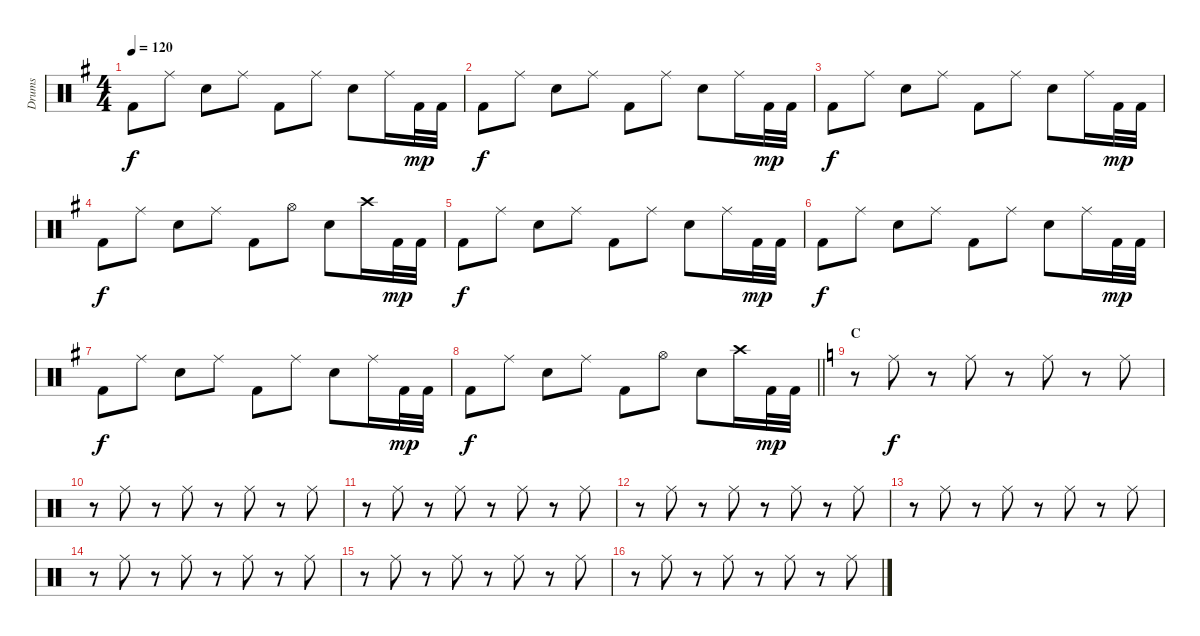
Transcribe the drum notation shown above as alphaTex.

\track ("Drums" "Drums") {instrument percussion}
\staff
\articulation defaults
\ts (4 4)
\tempo 120
\clef neutral
\ks g "Kick (hit) 2".8{dy f} "Ride (middle)".8 "Electric Snare (hit)".8 "Ride (middle)".8 "Kick (hit) 2".8 "Ride (middle)".8 "Electric Snare (hit)".8 "Ride (middle)".16 "Kick (hit) 2".32{dy mp} "Kick (hit) 2".32
|
"Kick (hit) 2".8{dy f} "Ride (middle)".8 "Electric Snare (hit)".8 "Ride (middle)".8 "Kick (hit) 2".8 "Ride (middle)".8 "Electric Snare (hit)".8 "Ride (middle)".16 "Kick (hit) 2".32{dy mp} "Kick (hit) 2".32 |
"Kick (hit) 2".8{dy f} "Ride (middle)".8 "Electric Snare (hit)".8 "Ride (middle)".8 "Kick (hit) 2".8 "Ride (middle)".8 "Electric Snare (hit)".8 "Ride (middle)".16 "Kick (hit) 2".32{dy mp} "Kick (hit) 2".32 |
"Kick (hit) 2".8{dy f} "Ride (middle)".8 "Electric Snare (hit)".8 "Ride (middle)".8 "Kick (hit) 2".8 "Hi-Hat (open)".8 "Electric Snare (hit)".8 "Crash high (hit)".16 "Kick (hit) 2".32{dy mp} "Kick (hit) 2".32 |
"Kick (hit) 2".8{dy f} "Ride (middle)".8 "Electric Snare (hit)".8 "Ride (middle)".8 "Kick (hit) 2".8 "Ride (middle)".8 "Electric Snare (hit)".8 "Ride (middle)".16 "Kick (hit) 2".32{dy mp} "Kick (hit) 2".32 |
"Kick (hit) 2".8{dy f} "Ride (middle)".8 "Electric Snare (hit)".8 "Ride (middle)".8 "Kick (hit) 2".8 "Ride (middle)".8 "Electric Snare (hit)".8 "Ride (middle)".16 "Kick (hit) 2".32{dy mp} "Kick (hit) 2".32 |
"Kick (hit) 2".8{dy f} "Ride (middle)".8 "Electric Snare (hit)".8 "Ride (middle)".8 "Kick (hit) 2".8 "Ride (middle)".8 "Electric Snare (hit)".8 "Ride (middle)".16 "Kick (hit) 2".32{dy mp} "Kick (hit) 2".32 |
\barLineRight lightlight "Kick (hit) 2".8{dy f} "Ride (middle)".8 "Electric Snare (hit)".8 "Ride (middle)".8 "Kick (hit) 2".8 "Hi-Hat (open)".8 "Electric Snare (hit)".8 "Crash high (hit)".16 "Kick (hit) 2".32{dy mp} "Kick (hit) 2".32
|
\section ("" "C")
\ks c
r.8 "Ride (middle)".8{dy f} r.8 "Ride (middle)".8 r.8 "Ride (middle)".8 r.8 "Ride (middle)".8 |
r.8 "Ride (middle)".8 r.8 "Ride (middle)".8 r.8 "Ride (middle)".8 r.8 "Ride (middle)".8 |
r.8 "Ride (middle)".8 r.8 "Ride (middle)".8 r.8 "Ride (middle)".8 r.8 "Ride (middle)".8 |
r.8 "Ride (middle)".8 r.8 "Ride (middle)".8 r.8 "Ride (middle)".8 r.8 "Ride (middle)".8 |
r.8 "Ride (middle)".8 r.8 "Ride (middle)".8 r.8 "Ride (middle)".8 r.8 "Ride (middle)".8 |
r.8 "Ride (middle)".8 r.8 "Ride (middle)".8 r.8 "Ride (middle)".8 r.8 "Ride (middle)".8 |
r.8 "Ride (middle)".8 r.8 "Ride (middle)".8 r.8 "Ride (middle)".8 r.8 "Ride (middle)".8 |
r.8 "Ride (middle)".8 r.8 "Ride (middle)".8 r.8 "Ride (middle)".8 r.8 "Ride (middle)".8
